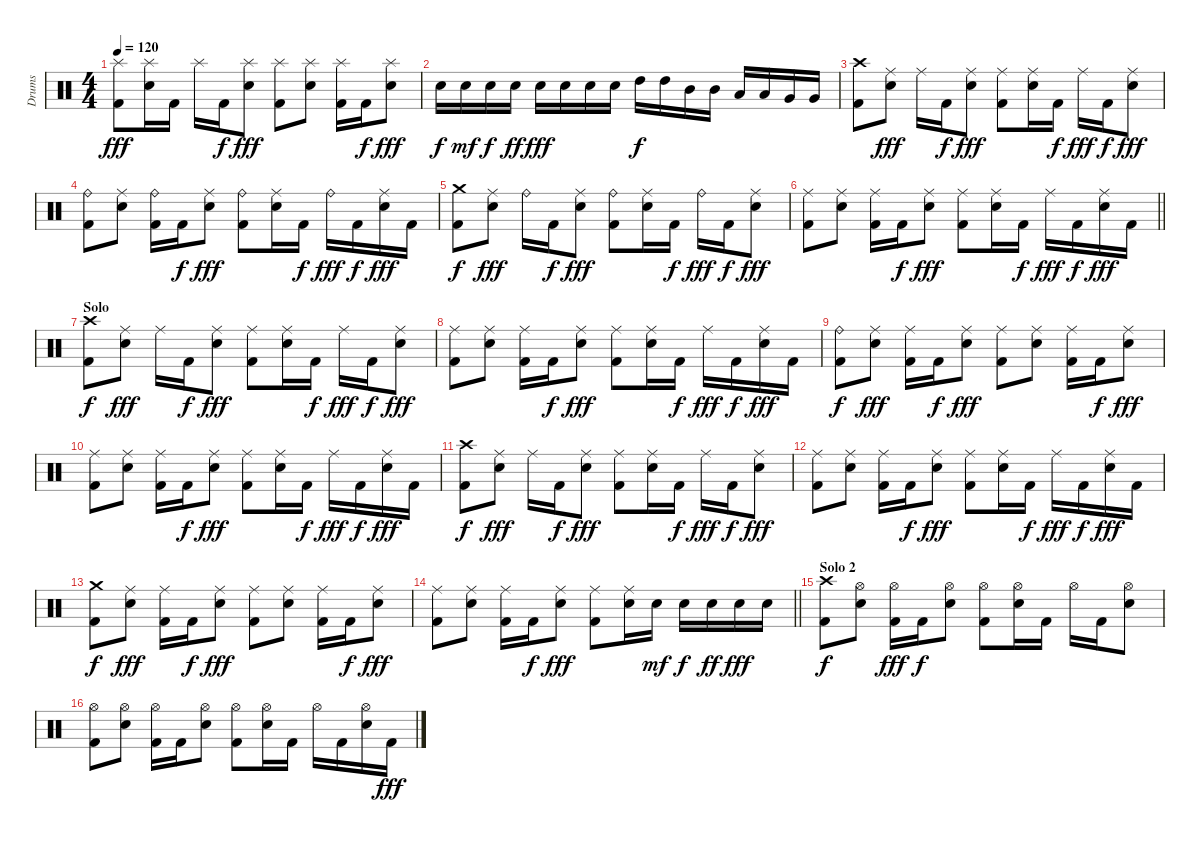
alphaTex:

\track ("Drums" "Drums") {instrument percussion}
\staff {score}
\articulation defaults
\ts (4 4)
\tempo 120
\clef neutral
\ks c
("Splash (hit)" "Kick (hit) 2").8{dy fff} ("Splash (hit)" "Snare (hit) 2").16 "Kick (hit) 2".16 "Splash (hit)".16 "Kick (hit) 2".16{dy f} ("Splash (hit)" "Snare (hit) 2").8{dy fff} ("Splash (hit)" "Kick (hit) 2").8 ("Splash (hit)" "Snare (hit) 2").8 ("Splash (hit)" "Kick (hit) 2").16 "Kick (hit) 2".16{dy f} ("Splash (hit)" "Snare (hit) 2").8{dy fff} |
"Snare (hit) 2".16{dy f} "Snare (hit) 2".16{dy mf} "Snare (hit) 2".16{dy f} "Snare (hit) 2".16{dy ff} "Snare (hit) 2".16{dy fff} "Snare (hit) 2".16 "Snare (hit) 2".16 "Snare (hit) 2".16 "High Tom (hit)".16{dy f} "High Tom (hit)".16 "Mid Tom (hit)".16 "Mid Tom (hit)".16 "Low Tom (hit)".16 "Low Tom (hit)".16 "Very Low Tom (hit)".16 "Very Low Tom (hit)".16 |
("Crash high (hit)" "Kick (hit) 2").8 ("Ride (middle)" "Snare (hit) 2").8{dy fff} "Ride (middle)".16 "Kick (hit) 2".16{dy f} ("Ride (middle)" "Snare (hit) 2").8{dy fff} ("Ride (middle)" "Kick (hit) 2").8 ("Ride (middle)" "Snare (hit) 2").16 "Kick (hit) 2".16{dy f} "Ride (middle)".16{dy fff} "Kick (hit) 2".16{dy f} ("Ride (middle)" "Snare (hit) 2").8{dy fff} |
("Ride (bell)" "Kick (hit) 2").8 ("Ride (middle)" "Snare (hit) 2").8 ("Ride (bell)" "Kick (hit) 2").16 "Kick (hit) 2".16{dy f} ("Ride (middle)" "Snare (hit) 2").8{dy fff} ("Ride (bell)" "Kick (hit) 2").8 ("Ride (middle)" "Snare (hit) 2").16 "Kick (hit) 2".16{dy f} "Ride (bell)".16{dy fff} "Kick (hit) 2".16{dy f} ("Ride (middle)" "Snare (hit) 2").16{dy fff} "Kick (hit) 2".16 |
("Crash medium (hit)" "Kick (hit) 2").8{dy f} ("Ride (middle)" "Snare (hit) 2").8{dy fff} "Ride (bell)".16 "Kick (hit) 2".16{dy f} ("Ride (middle)" "Snare (hit) 2").8{dy fff} ("Ride (bell)" "Kick (hit) 2").8 ("Ride (middle)" "Snare (hit) 2").16 "Kick (hit) 2".16{dy f} "Ride (bell)".16{dy fff} "Kick (hit) 2".16{dy f} ("Ride (middle)" "Snare (hit) 2").8{dy fff} |
\barLineRight lightlight
("Ride (middle)" "Kick (hit) 2").8 ("Ride (middle)" "Snare (hit) 2").8 ("Ride (middle)" "Kick (hit) 2").16 "Kick (hit) 2".16{dy f} ("Ride (middle)" "Snare (hit) 2").8{dy fff} ("Ride (middle)" "Kick (hit) 2").8 ("Ride (middle)" "Snare (hit) 2").16 "Kick (hit) 2".16{dy f} "Ride (middle)".16{dy fff} "Kick (hit) 2".16{dy f} ("Ride (middle)" "Snare (hit) 2").16{dy fff} "Kick (hit) 2".16 |
\section ("" "Solo")
("Crash high (hit)" "Kick (hit) 2").8{dy f} ("Ride (middle)" "Snare (hit) 2").8{dy fff} "Ride (middle)".16 "Kick (hit) 2".16{dy f} ("Ride (middle)" "Snare (hit) 2").8{dy fff} ("Ride (middle)" "Kick (hit) 2").8 ("Ride (middle)" "Snare (hit) 2").16 "Kick (hit) 2".16{dy f} "Ride (middle)".16{dy fff} "Kick (hit) 2".16{dy f} ("Ride (middle)" "Snare (hit) 2").8{dy fff} |
("Ride (middle)" "Kick (hit) 2").8 ("Ride (middle)" "Snare (hit) 2").8 ("Ride (middle)" "Kick (hit) 2").16 "Kick (hit) 2".16{dy f} ("Ride (middle)" "Snare (hit) 2").8{dy fff} ("Ride (middle)" "Kick (hit) 2").8 ("Ride (middle)" "Snare (hit) 2").16 "Kick (hit) 2".16{dy f} "Ride (middle)".16{dy fff} "Kick (hit) 2".16{dy f} ("Ride (middle)" "Snare (hit) 2").16{dy fff} "Kick (hit) 2".16 |
("Ride (bell)" "Kick (hit) 2").8{dy f} ("Ride (middle)" "Snare (hit) 2").8{dy fff} ("Ride (middle)" "Kick (hit) 2").16 "Kick (hit) 2".16{dy f} ("Ride (middle)" "Snare (hit) 2").8{dy fff} ("Ride (middle)" "Kick (hit) 2").8 ("Ride (middle)" "Snare (hit) 2").8 ("Ride (middle)" "Kick (hit) 2").16 "Kick (hit) 2".16{dy f} ("Ride (middle)" "Snare (hit) 2").8{dy fff} |
("Ride (middle)" "Kick (hit) 2").8 ("Ride (middle)" "Snare (hit) 2").8 ("Ride (middle)" "Kick (hit) 2").16 "Kick (hit) 2".16{dy f} ("Ride (middle)" "Snare (hit) 2").8{dy fff} ("Ride (middle)" "Kick (hit) 2").8 ("Ride (middle)" "Snare (hit) 2").16 "Kick (hit) 2".16{dy f} "Ride (middle)".16{dy fff} "Kick (hit) 2".16{dy f} ("Ride (middle)" "Snare (hit) 2").16{dy fff} "Kick (hit) 2".16 |
("Crash high (hit)" "Kick (hit) 2").8{dy f} ("Ride (middle)" "Snare (hit) 2").8{dy fff} "Ride (middle)".16 "Kick (hit) 2".16{dy f} ("Ride (middle)" "Snare (hit) 2").8{dy fff} ("Ride (middle)" "Kick (hit) 2").8 ("Ride (middle)" "Snare (hit) 2").16 "Kick (hit) 2".16{dy f} "Ride (middle)".16{dy fff} "Kick (hit) 2".16{dy f} ("Ride (middle)" "Snare (hit) 2").8{dy fff} |
("Ride (middle)" "Kick (hit) 2").8 ("Ride (middle)" "Snare (hit) 2").8 ("Ride (middle)" "Kick (hit) 2").16 "Kick (hit) 2".16{dy f} ("Ride (middle)" "Snare (hit) 2").8{dy fff} ("Ride (middle)" "Kick (hit) 2").8 ("Ride (middle)" "Snare (hit) 2").16 "Kick (hit) 2".16{dy f} "Ride (middle)".16{dy fff} "Kick (hit) 2".16{dy f} ("Ride (middle)" "Snare (hit) 2").16{dy fff} "Kick (hit) 2".16 |
("Crash medium (hit)" "Kick (hit) 2").8{dy f} ("Ride (middle)" "Snare (hit) 2").8{dy fff} ("Ride (middle)" "Kick (hit) 2").16 "Kick (hit) 2".16{dy f} ("Ride (middle)" "Snare (hit) 2").8{dy fff} ("Ride (middle)" "Kick (hit) 2").8 ("Ride (middle)" "Snare (hit) 2").8 ("Ride (middle)" "Kick (hit) 2").16 "Kick (hit) 2".16{dy f} ("Ride (middle)" "Snare (hit) 2").8{dy fff} |
\barLineRight lightlight
("Ride (middle)" "Kick (hit) 2").8 ("Ride (middle)" "Snare (hit) 2").8 ("Ride (middle)" "Kick (hit) 2").16 "Kick (hit) 2".16{dy f} ("Ride (middle)" "Snare (hit) 2").8{dy fff} ("Ride (middle)" "Kick (hit) 2").8 ("Ride (middle)" "Snare (hit) 2").16 "Snare (hit) 2".16{dy mf} "Snare (hit) 2".16{dy f} "Snare (hit) 2".16{dy ff} "Snare (hit) 2".16{dy fff} "Snare (hit) 2".16 |
\section ("" "Solo 2")
("Crash high (hit)" "Kick (hit) 2").8{dy f} ("Hi-Hat (open)" "Snare (hit) 2").8 ("Hi-Hat (open)" "Kick (hit) 2").16{dy fff} "Kick (hit) 2".16{dy f} ("Hi-Hat (open)" "Snare (hit) 2").8 ("Hi-Hat (open)" "Kick (hit) 2").8 ("Hi-Hat (open)" "Snare (hit) 2").16 "Kick (hit) 2".16 "Hi-Hat (open)".16 "Kick (hit) 2".16 ("Hi-Hat (open)" "Snare (hit) 2").8 |
("Hi-Hat (open)" "Kick (hit) 2").8 ("Hi-Hat (open)" "Snare (hit) 2").8 ("Hi-Hat (open)" "Kick (hit) 2").16 "Kick (hit) 2".16 ("Hi-Hat (open)" "Snare (hit) 2").8 ("Hi-Hat (open)" "Kick (hit) 2").8 ("Hi-Hat (open)" "Snare (hit) 2").16 "Kick (hit) 2".16 "Hi-Hat (open)".16 "Kick (hit) 2".16 ("Hi-Hat (open)" "Snare (hit) 2").16 "Kick (hit) 2".16{dy fff}
